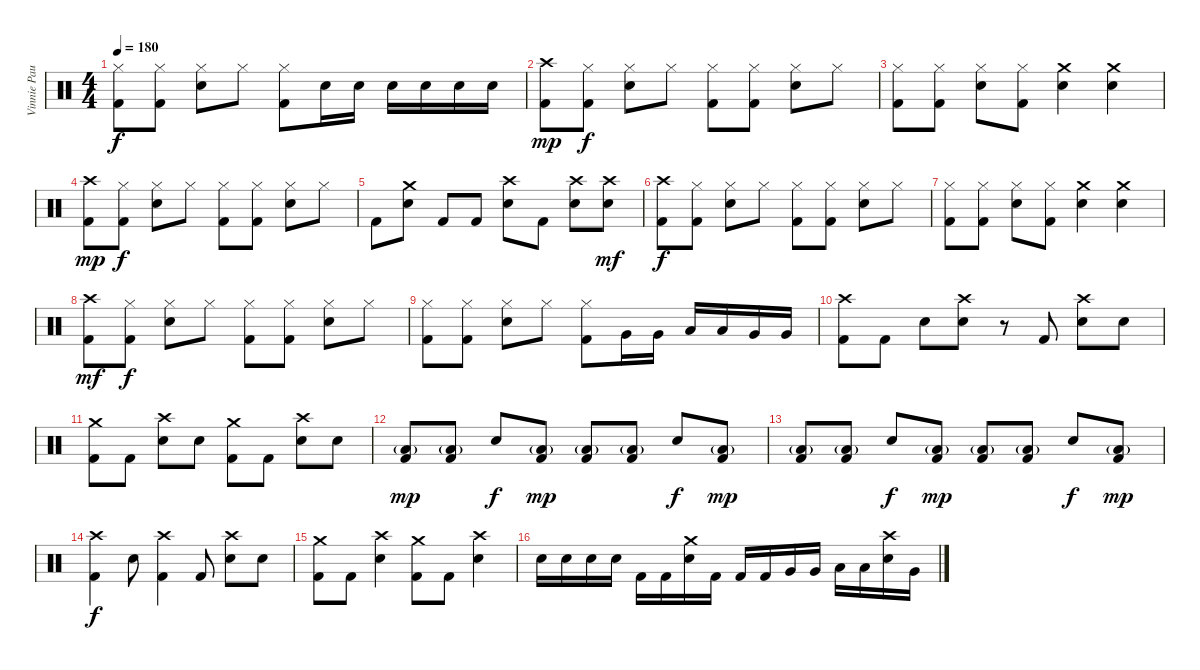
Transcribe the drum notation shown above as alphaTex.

\track ("Vinnie Paul" "Vinnie Pau") {instrument percussion}
\staff {score}
\articulation defaults
\ts (4 4)
\tempo 180
\clef neutral
\ks c
("Hi-Hat (closed)" "Kick (hit) 2").8{dy f} ("Hi-Hat (closed)" "Kick (hit) 2").8 ("Hi-Hat (closed)" "Electric Snare (hit)").8 "Hi-Hat (closed)".8 ("Hi-Hat (closed)" "Kick (hit) 2").8 "Electric Snare (hit)".16 "Electric Snare (hit)".16 "Electric Snare (hit)".16 "Electric Snare (hit)".16 "Electric Snare (hit)".16 "Electric Snare (hit)".16 |
("Crash high (hit)" "Kick (hit) 2").8{dy mp} ("Hi-Hat (closed)" "Kick (hit) 2").8{dy f} ("Hi-Hat (closed)" "Electric Snare (hit)").8 "Hi-Hat (closed)".8 ("Hi-Hat (closed)" "Kick (hit) 2").8 ("Hi-Hat (closed)" "Kick (hit) 2").8 ("Hi-Hat (closed)" "Electric Snare (hit)").8 "Hi-Hat (closed)".8 |
("Hi-Hat (closed)" "Kick (hit) 2").8 ("Hi-Hat (closed)" "Kick (hit) 2").8 ("Hi-Hat (closed)" "Electric Snare (hit)").8 ("Hi-Hat (closed)" "Kick (hit) 2").8 ("Crash medium (hit)" "Electric Snare (hit)").4 ("Crash medium (hit)" "Electric Snare (hit)").4 |
("Crash high (hit)" "Kick (hit) 2").8{dy mp} ("Hi-Hat (closed)" "Kick (hit) 2").8{dy f} ("Hi-Hat (closed)" "Electric Snare (hit)").8 "Hi-Hat (closed)".8 ("Hi-Hat (closed)" "Kick (hit) 2").8 ("Hi-Hat (closed)" "Kick (hit) 2").8 ("Hi-Hat (closed)" "Electric Snare (hit)").8 "Hi-Hat (closed)".8 |
"Kick (hit) 2".8 ("Crash medium (hit)" "Electric Snare (hit)").8 "Kick (hit) 2".8 "Kick (hit) 2".8 ("Crash high (hit)" "Electric Snare (hit)").8 "Kick (hit) 2".8 ("Crash high (hit)" "Electric Snare (hit)").8 ("Crash high (hit)" "Electric Snare (hit)").8{dy mf} |
("Crash high (hit)" "Kick (hit) 2").8{dy f} ("Hi-Hat (closed)" "Kick (hit) 2").8 ("Hi-Hat (closed)" "Electric Snare (hit)").8 "Hi-Hat (closed)".8 ("Hi-Hat (closed)" "Kick (hit) 2").8 ("Hi-Hat (closed)" "Kick (hit) 2").8 ("Hi-Hat (closed)" "Electric Snare (hit)").8 "Hi-Hat (closed)".8 |
("Hi-Hat (closed)" "Kick (hit) 2").8 ("Hi-Hat (closed)" "Kick (hit) 2").8 ("Hi-Hat (closed)" "Electric Snare (hit)").8 ("Hi-Hat (closed)" "Kick (hit) 2").8 ("Crash medium (hit)" "Electric Snare (hit)").4 ("Crash medium (hit)" "Electric Snare (hit)").4 |
("Crash high (hit)" "Kick (hit) 2").8{dy mf} ("Hi-Hat (closed)" "Kick (hit) 2").8{dy f} ("Hi-Hat (closed)" "Electric Snare (hit)").8 "Hi-Hat (closed)".8 ("Hi-Hat (closed)" "Kick (hit) 2").8 ("Hi-Hat (closed)" "Kick (hit) 2").8 ("Hi-Hat (closed)" "Electric Snare (hit)").8 "Hi-Hat (closed)".8 |
("Hi-Hat (closed)" "Kick (hit) 2").8 ("Hi-Hat (closed)" "Kick (hit) 2").8 ("Hi-Hat (closed)" "Electric Snare (hit)").8 "Hi-Hat (closed)".8 ("Hi-Hat (closed)" "Kick (hit) 2").8 "Very Low Tom (hit)".16 "Very Low Tom (hit)".16 "Low Floor Tom (hit)".16 "Low Floor Tom (hit)".16 "Very Low Tom (hit)".16 "Very Low Tom (hit)".16 |
("Crash high (hit)" "Kick (hit) 2").8 "Kick (hit) 2".8 "Electric Snare (hit)".8 ("Crash high (hit)" "Electric Snare (hit)").8 r.8 "Kick (hit) 2".8 ("Crash high (hit)" "Electric Snare (hit)").8 "Electric Snare (hit)".8 |
("Crash medium (hit)" "Kick (hit) 2").8 "Kick (hit) 2".8 ("Crash high (hit)" "Electric Snare (hit)").8 "Electric Snare (hit)".8 ("Crash medium (hit)" "Kick (hit) 2").8 "Kick (hit) 2".8 ("Crash high (hit)" "Electric Snare (hit)").8 "Electric Snare (hit)".8 |
("Low Floor Tom (hit)"{g} "Kick (hit) 2").8{dy mp} ("Low Floor Tom (hit)"{g} "Kick (hit) 2").8 "Electric Snare (hit)".8{dy f} ("Low Floor Tom (hit)"{g} "Kick (hit) 2").8{dy mp} ("Low Floor Tom (hit)"{g} "Kick (hit) 2").8 ("Low Floor Tom (hit)"{g} "Kick (hit) 2").8 "Electric Snare (hit)".8{dy f} ("Low Floor Tom (hit)"{g} "Kick (hit) 2").8{dy mp} |
("Low Floor Tom (hit)"{g} "Kick (hit) 2").8 ("Low Floor Tom (hit)"{g} "Kick (hit) 2").8 "Electric Snare (hit)".8{dy f} ("Low Floor Tom (hit)"{g} "Kick (hit) 2").8{dy mp} ("Low Floor Tom (hit)"{g} "Kick (hit) 2").8 ("Low Floor Tom (hit)"{g} "Kick (hit) 2").8 "Electric Snare (hit)".8{dy f} ("Low Floor Tom (hit)"{g} "Kick (hit) 2").8{dy mp} |
("Crash high (hit)" "Kick (hit) 2").4{dy f} "Electric Snare (hit)".8 ("Crash high (hit)" "Kick (hit) 2").4 "Kick (hit) 2".8 ("Crash high (hit)" "Electric Snare (hit)").8 "Electric Snare (hit)".8 |
("Crash medium (hit)" "Kick (hit) 2").8 "Kick (hit) 2".8 ("Crash high (hit)" "Electric Snare (hit)").4 ("Crash medium (hit)" "Kick (hit) 2").8 "Kick (hit) 2".8 ("Crash high (hit)" "Electric Snare (hit)").4 |
"Electric Snare (hit)".16 "Electric Snare (hit)".16 "Electric Snare (hit)".16 "Electric Snare (hit)".16 "Kick (hit) 2".16 "Kick (hit) 2".16 ("Crash medium (hit)" "Electric Snare (hit)").16 "Kick (hit) 2".16 "Kick (hit) 2".16 "Kick (hit) 2".16 "Very Low Tom (hit)".16 "Very Low Tom (hit)".16 "Low Floor Tom (hit)".16 "Low Floor Tom (hit)".16 ("Crash high (hit)" "Electric Snare (hit)").16 "Very Low Tom (hit)".16
